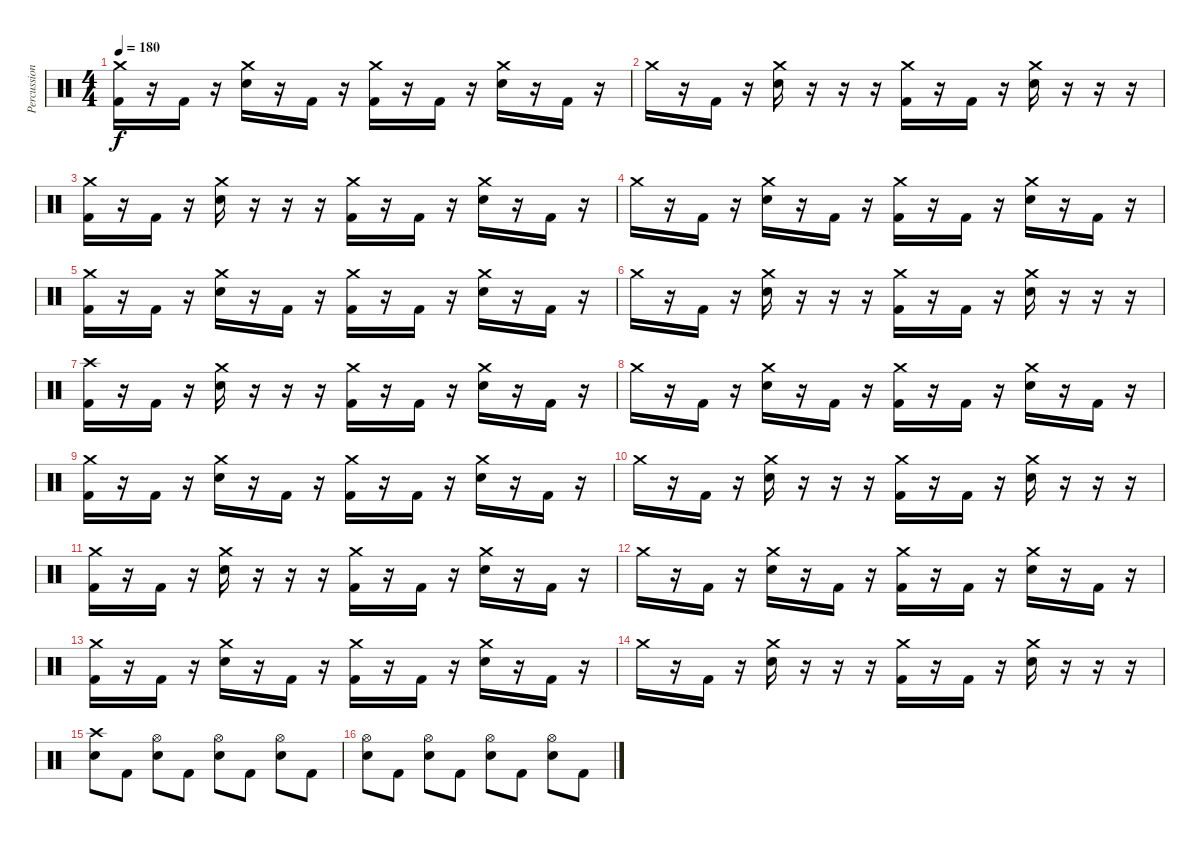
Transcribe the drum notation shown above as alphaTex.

\track ("Percussion" "Percussion") {instrument percussion}
\staff {score}
\articulation defaults
\ts (4 4)
\tempo 180
\clef neutral
\ks c
("Crash medium (hit)" "Kick (hit) 2").16{dy f} r.16 "Kick (hit) 2".16 r.16 ("Crash medium (hit)" "Snare (hit) 2").16 r.16 "Kick (hit) 2".16 r.16 ("Crash medium (hit)" "Kick (hit) 2").16 r.16 "Kick (hit) 2".16 r.16 ("Crash medium (hit)" "Snare (hit) 2").16 r.16 "Kick (hit) 2".16 r.16 |
"Crash medium (hit)".16 r.16 "Kick (hit) 2".16 r.16 ("Crash medium (hit)" "Snare (hit) 2").16 r.16 r.16 r.16 ("Crash medium (hit)" "Kick (hit) 2").16 r.16 "Kick (hit) 2".16 r.16 ("Crash medium (hit)" "Snare (hit) 2").16 r.16 r.16 r.16 |
("Crash medium (hit)" "Kick (hit) 2").16 r.16 "Kick (hit) 2".16 r.16 ("Crash medium (hit)" "Snare (hit) 2").16 r.16 r.16 r.16 ("Crash medium (hit)" "Kick (hit) 2").16 r.16 "Kick (hit) 2".16 r.16 ("Crash medium (hit)" "Snare (hit) 2").16 r.16 "Kick (hit) 2".16 r.16 |
"Crash medium (hit)".16 r.16 "Kick (hit) 2".16 r.16 ("Crash medium (hit)" "Snare (hit) 2").16 r.16 "Kick (hit) 2".16 r.16 ("Crash medium (hit)" "Kick (hit) 2").16 r.16 "Kick (hit) 2".16 r.16 ("Crash medium (hit)" "Snare (hit) 2").16 r.16 "Kick (hit) 2".16 r.16 |
("Crash medium (hit)" "Kick (hit) 2").16 r.16 "Kick (hit) 2".16 r.16 ("Crash medium (hit)" "Snare (hit) 2").16 r.16 "Kick (hit) 2".16 r.16 ("Crash medium (hit)" "Kick (hit) 2").16 r.16 "Kick (hit) 2".16 r.16 ("Crash medium (hit)" "Snare (hit) 2").16 r.16 "Kick (hit) 2".16 r.16 |
"Crash medium (hit)".16 r.16 "Kick (hit) 2".16 r.16 ("Crash medium (hit)" "Snare (hit) 2").16 r.16 r.16 r.16 ("Crash medium (hit)" "Kick (hit) 2").16 r.16 "Kick (hit) 2".16 r.16 ("Crash medium (hit)" "Snare (hit) 2").16 r.16 r.16 r.16 |
("Crash high (hit)" "Kick (hit) 2").16 r.16 "Kick (hit) 2".16 r.16 ("Crash medium (hit)" "Snare (hit) 2").16 r.16 r.16 r.16 ("Crash medium (hit)" "Kick (hit) 2").16 r.16 "Kick (hit) 2".16 r.16 ("Crash medium (hit)" "Snare (hit) 2").16 r.16 "Kick (hit) 2".16 r.16 |
"Crash medium (hit)".16 r.16 "Kick (hit) 2".16 r.16 ("Crash medium (hit)" "Snare (hit) 2").16 r.16 "Kick (hit) 2".16 r.16 ("Crash medium (hit)" "Kick (hit) 2").16 r.16 "Kick (hit) 2".16 r.16 ("Crash medium (hit)" "Snare (hit) 2").16 r.16 "Kick (hit) 2".16 r.16 |
("Crash medium (hit)" "Kick (hit) 2").16 r.16 "Kick (hit) 2".16 r.16 ("Crash medium (hit)" "Snare (hit) 2").16 r.16 "Kick (hit) 2".16 r.16 ("Crash medium (hit)" "Kick (hit) 2").16 r.16 "Kick (hit) 2".16 r.16 ("Crash medium (hit)" "Snare (hit) 2").16 r.16 "Kick (hit) 2".16 r.16 |
"Crash medium (hit)".16 r.16 "Kick (hit) 2".16 r.16 ("Crash medium (hit)" "Snare (hit) 2").16 r.16 r.16 r.16 ("Crash medium (hit)" "Kick (hit) 2").16 r.16 "Kick (hit) 2".16 r.16 ("Crash medium (hit)" "Snare (hit) 2").16 r.16 r.16 r.16 |
("Crash medium (hit)" "Kick (hit) 2").16 r.16 "Kick (hit) 2".16 r.16 ("Crash medium (hit)" "Snare (hit) 2").16 r.16 r.16 r.16 ("Crash medium (hit)" "Kick (hit) 2").16 r.16 "Kick (hit) 2".16 r.16 ("Crash medium (hit)" "Snare (hit) 2").16 r.16 "Kick (hit) 2".16 r.16 |
"Crash medium (hit)".16 r.16 "Kick (hit) 2".16 r.16 ("Crash medium (hit)" "Snare (hit) 2").16 r.16 "Kick (hit) 2".16 r.16 ("Crash medium (hit)" "Kick (hit) 2").16 r.16 "Kick (hit) 2".16 r.16 ("Crash medium (hit)" "Snare (hit) 2").16 r.16 "Kick (hit) 2".16 r.16 |
("Crash medium (hit)" "Kick (hit) 2").16 r.16 "Kick (hit) 2".16 r.16 ("Crash medium (hit)" "Snare (hit) 2").16 r.16 "Kick (hit) 2".16 r.16 ("Crash medium (hit)" "Kick (hit) 2").16 r.16 "Kick (hit) 2".16 r.16 ("Crash medium (hit)" "Snare (hit) 2").16 r.16 "Kick (hit) 2".16 r.16 |
"Crash medium (hit)".16 r.16 "Kick (hit) 2".16 r.16 ("Crash medium (hit)" "Snare (hit) 2").16 r.16 r.16 r.16 ("Crash medium (hit)" "Kick (hit) 2").16 r.16 "Kick (hit) 2".16 r.16 ("Crash medium (hit)" "Snare (hit) 2").16 r.16 r.16 r.16 |
("Crash high (hit)" "Snare (hit) 2").8 "Kick (hit) 2".8 ("Hi-Hat (open)" "Snare (hit) 2").8 "Kick (hit) 2".8 ("Hi-Hat (open)" "Snare (hit) 2").8 "Kick (hit) 2".8 ("Hi-Hat (open)" "Snare (hit) 2").8 "Kick (hit) 2".8 |
("Hi-Hat (open)" "Snare (hit) 2").8 "Kick (hit) 2".8 ("Hi-Hat (open)" "Snare (hit) 2").8 "Kick (hit) 2".8 ("Hi-Hat (open)" "Snare (hit) 2").8 "Kick (hit) 2".8 ("Hi-Hat (open)" "Snare (hit) 2").8 "Kick (hit) 2".8
